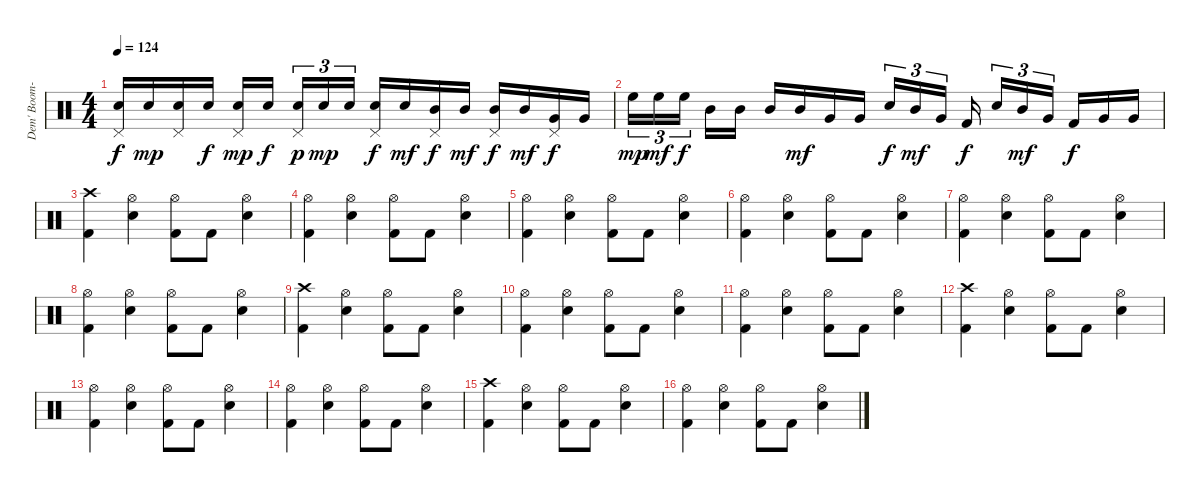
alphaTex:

\track ("Dem' Boom-Booms" "Dem' Boom-") {instrument percussion}
\staff {score}
\articulation defaults
\ts (4 4)
\tempo 124
\clef neutral
\ks c
("Electric Snare (hit)" "Pedal Hi-Hat (hit)").16{dy f} "Electric Snare (hit)".16{dy mp} ("Electric Snare (hit)" "Pedal Hi-Hat (hit)").16 "Electric Snare (hit)".16{dy f} ("Electric Snare (hit)" "Pedal Hi-Hat (hit)").16{dy mp} "Electric Snare (hit)".16{dy f} ("Electric Snare (hit)" "Pedal Hi-Hat (hit)").16{tu (3 2) dy p} "Electric Snare (hit)".16{tu (3 2) dy mp} "Electric Snare (hit)".16{tu (3 2)} ("Electric Snare (hit)" "Pedal Hi-Hat (hit)").16{dy f} "Electric Snare (hit)".16{dy mf} ("Mid Tom (hit)" "Pedal Hi-Hat (hit)").16{dy f} "Mid Tom (hit)".16{dy mf} ("Mid Tom (hit)" "Pedal Hi-Hat (hit)").16{dy f} "Mid Tom (hit)".16{dy mf} ("Very Low Tom (hit)" "Pedal Hi-Hat (hit)").16{dy f} "Very Low Tom (hit)".16 |
"High Floor Tom (hit)".16{tu (3 2) dy mp} "High Floor Tom (hit)".16{tu (3 2) dy mf} "High Floor Tom (hit)".16{tu (3 2) dy f} "Mid Tom (hit)".16 "Mid Tom (hit)".16 "Mid Tom (hit)".16 "Mid Tom (hit)".16{dy mf} "Very Low Tom (hit)".16 "Very Low Tom (hit)".16 "Electric Snare (hit)".16{tu (3 2) dy f} "Mid Tom (hit)".16{tu (3 2) dy mf} "Very Low Tom (hit)".16{tu (3 2)} "Kick (hit) 2".16{dy f} "Electric Snare (hit)".16{tu (3 2)} "Mid Tom (hit)".16{tu (3 2) dy mf} "Very Low Tom (hit)".16{tu (3 2)} "Kick (hit) 2".16{dy f} "Very Low Tom (hit)".16 "Very Low Tom (hit)".16 |
("Crash high (hit)" "Kick (hit) 2").4 ("Hi-Hat (open)" "Electric Snare (hit)").4 ("Hi-Hat (open)" "Kick (hit) 2").8 "Kick (hit) 2".8 ("Hi-Hat (open)" "Electric Snare (hit)").4 |
("Hi-Hat (open)" "Kick (hit) 2").4 ("Hi-Hat (open)" "Electric Snare (hit)").4 ("Hi-Hat (open)" "Kick (hit) 2").8 "Kick (hit) 2".8 ("Hi-Hat (open)" "Electric Snare (hit)").4 |
("Hi-Hat (open)" "Kick (hit) 2").4 ("Hi-Hat (open)" "Electric Snare (hit)").4 ("Hi-Hat (open)" "Kick (hit) 2").8 "Kick (hit) 2".8 ("Hi-Hat (open)" "Electric Snare (hit)").4 |
("Hi-Hat (open)" "Kick (hit) 2").4 ("Hi-Hat (open)" "Electric Snare (hit)").4 ("Hi-Hat (open)" "Kick (hit) 2").8 "Kick (hit) 2".8 ("Hi-Hat (open)" "Electric Snare (hit)").4 |
("Hi-Hat (open)" "Kick (hit) 2").4 ("Hi-Hat (open)" "Electric Snare (hit)").4 ("Hi-Hat (open)" "Kick (hit) 2").8 "Kick (hit) 2".8 ("Hi-Hat (open)" "Electric Snare (hit)").4 |
("Hi-Hat (open)" "Kick (hit) 2").4 ("Hi-Hat (open)" "Electric Snare (hit)").4 ("Hi-Hat (open)" "Kick (hit) 2").8 "Kick (hit) 2".8 ("Hi-Hat (open)" "Electric Snare (hit)").4 |
("Crash high (hit)" "Kick (hit) 2").4 ("Hi-Hat (open)" "Electric Snare (hit)").4 ("Hi-Hat (open)" "Kick (hit) 2").8 "Kick (hit) 2".8 ("Hi-Hat (open)" "Electric Snare (hit)").4 |
("Hi-Hat (open)" "Kick (hit) 2").4 ("Hi-Hat (open)" "Electric Snare (hit)").4 ("Hi-Hat (open)" "Kick (hit) 2").8 "Kick (hit) 2".8 ("Hi-Hat (open)" "Electric Snare (hit)").4 |
("Hi-Hat (open)" "Kick (hit) 2").4 ("Hi-Hat (open)" "Electric Snare (hit)").4 ("Hi-Hat (open)" "Kick (hit) 2").8 "Kick (hit) 2".8 ("Hi-Hat (open)" "Electric Snare (hit)").4 |
("Crash high (hit)" "Kick (hit) 2").4 ("Hi-Hat (open)" "Electric Snare (hit)").4 ("Hi-Hat (open)" "Kick (hit) 2").8 "Kick (hit) 2".8 ("Hi-Hat (open)" "Electric Snare (hit)").4 |
("Hi-Hat (open)" "Kick (hit) 2").4 ("Hi-Hat (open)" "Electric Snare (hit)").4 ("Hi-Hat (open)" "Kick (hit) 2").8 "Kick (hit) 2".8 ("Hi-Hat (open)" "Electric Snare (hit)").4 |
("Hi-Hat (open)" "Kick (hit) 2").4 ("Hi-Hat (open)" "Electric Snare (hit)").4 ("Hi-Hat (open)" "Kick (hit) 2").8 "Kick (hit) 2".8 ("Hi-Hat (open)" "Electric Snare (hit)").4 |
("Crash high (hit)" "Kick (hit) 2").4 ("Hi-Hat (open)" "Electric Snare (hit)").4 ("Hi-Hat (open)" "Kick (hit) 2").8 "Kick (hit) 2".8 ("Hi-Hat (open)" "Electric Snare (hit)").4 |
("Hi-Hat (open)" "Kick (hit) 2").4 ("Hi-Hat (open)" "Electric Snare (hit)").4 ("Hi-Hat (open)" "Kick (hit) 2").8 "Kick (hit) 2".8 ("Hi-Hat (open)" "Electric Snare (hit)").4
